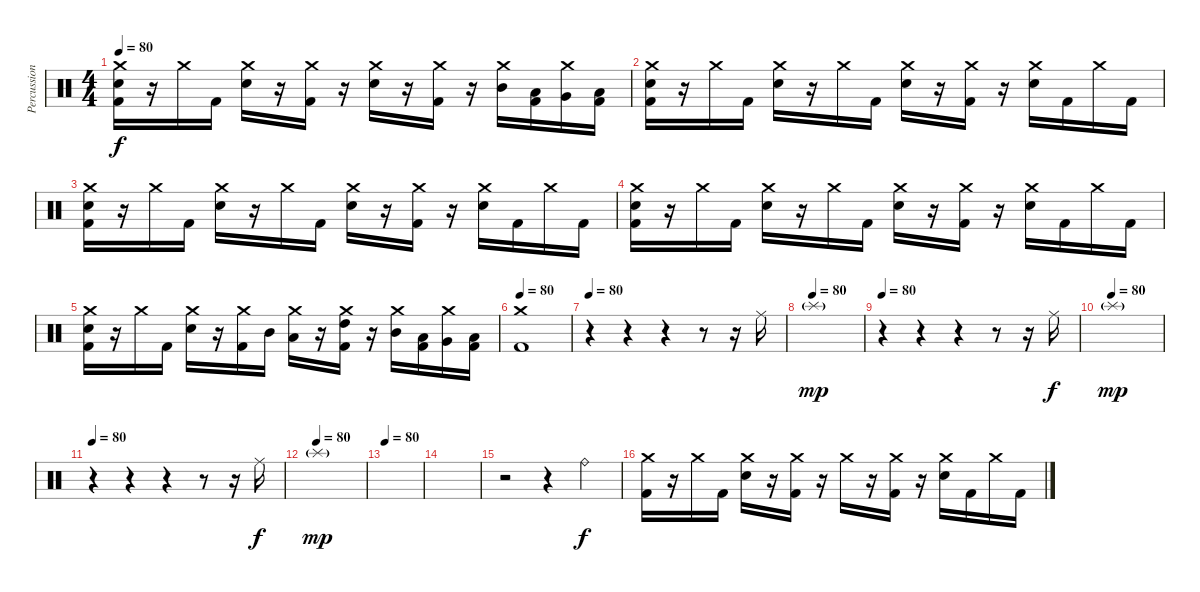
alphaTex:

\track ("Percussion" "Percussion") {instrument percussion}
\staff {score}
\articulation defaults
\ts (4 4)
\tempo 80
\clef neutral
\ks c
("Crash medium (hit)" "Electric Snare (hit)" "Kick (hit) 2").16{dy f} r.16 "Crash medium (hit)".16 "Kick (hit) 2".16 ("Crash medium (hit)" "Electric Snare (hit)").16 r.16 ("Crash medium (hit)" "Kick (hit) 2").16 r.16 ("Crash medium (hit)" "Electric Snare (hit)").16 r.16 ("Crash medium (hit)" "Kick (hit) 2").16 r.16 ("Crash medium (hit)" "Mid Tom (hit)").16 ("Low Tom (hit)" "Kick (hit) 2").16 ("Crash medium (hit)" "Very Low Tom (hit)").16 ("Low Floor Tom (hit)" "Kick (hit) 2").16 |
("Crash medium (hit)" "Electric Snare (hit)" "Kick (hit) 2").16 r.16 "Crash medium (hit)".16 "Kick (hit) 2".16 ("Crash medium (hit)" "Electric Snare (hit)").16 r.16 "Crash medium (hit)".16 "Kick (hit) 2".16 ("Crash medium (hit)" "Electric Snare (hit)").16 r.16 ("Crash medium (hit)" "Kick (hit) 2").16 r.16 ("Crash medium (hit)" "Electric Snare (hit)").16 "Kick (hit) 2".16 "Crash medium (hit)".16 "Kick (hit) 2".16 |
("Crash medium (hit)" "Electric Snare (hit)" "Kick (hit) 2").16 r.16 "Crash medium (hit)".16 "Kick (hit) 2".16 ("Crash medium (hit)" "Electric Snare (hit)").16 r.16 "Crash medium (hit)".16 "Kick (hit) 2".16 ("Crash medium (hit)" "Electric Snare (hit)").16 r.16 ("Crash medium (hit)" "Kick (hit) 2").16 r.16 ("Crash medium (hit)" "Electric Snare (hit)").16 "Kick (hit) 2".16 "Crash medium (hit)".16 "Kick (hit) 2".16 |
("Crash medium (hit)" "Electric Snare (hit)" "Kick (hit) 2").16 r.16 "Crash medium (hit)".16 "Kick (hit) 2".16 ("Crash medium (hit)" "Electric Snare (hit)").16 r.16 "Crash medium (hit)".16 "Kick (hit) 2".16 ("Crash medium (hit)" "Electric Snare (hit)").16 r.16 ("Crash medium (hit)" "Kick (hit) 2").16 r.16 ("Crash medium (hit)" "Electric Snare (hit)").16 "Kick (hit) 2".16 "Crash medium (hit)".16 "Kick (hit) 2".16 |
("Crash medium (hit)" "Electric Snare (hit)" "Kick (hit) 2").16 r.16 "Crash medium (hit)".16 "Kick (hit) 2".16 ("Crash medium (hit)" "Electric Snare (hit)").16 r.16 ("Crash medium (hit)" "Kick (hit) 2").16 "Mid Tom (hit)".16 ("Crash medium (hit)" "Low Tom (hit)").16 r.16 ("Crash medium (hit)" "High Tom (hit)" "Kick (hit) 2").16 r.16 ("Crash medium (hit)" "Mid Tom (hit)").16 ("Low Tom (hit)" "Kick (hit) 2").16 ("Crash medium (hit)" "Very Low Tom (hit)").16 ("Low Floor Tom (hit)" "Kick (hit) 2").16 |
\tempo 80
("Crash medium (hit)" "Kick (hit) 2").1 |
\tempo 80
r.4 r.4 r.4 r.8 r.16 "Ride (middle)".16 |
\tempo (80)
"Splash (hit)"{g}.1{dy mp} |
\tempo 80
r.4 r.4 r.4 r.8 r.16 "Ride (middle)".16{dy f} |
\tempo (80)
"Splash (hit)"{g}.1{dy mp} |
\tempo 80
r.4 r.4 r.4 r.8 r.16 "Ride (middle)".16{dy f} |
\tempo (80)
"Splash (hit)"{g}.1{dy mp} |
\tempo 80
|
|
r.2 r.4 "Ride (bell)".4{dy f} |
("Crash medium (hit)" "Kick (hit) 2").16 r.16 "Crash medium (hit)".16 "Kick (hit) 2".16 ("Crash medium (hit)" "Electric Snare (hit)").16 r.16 ("Crash medium (hit)" "Kick (hit) 2").16 r.16 "Crash medium (hit)".16 r.16 ("Crash medium (hit)" "Kick (hit) 2").16 r.16 ("Crash medium (hit)" "Electric Snare (hit)").16 "Kick (hit) 2".16 "Crash medium (hit)".16 "Kick (hit) 2".16
